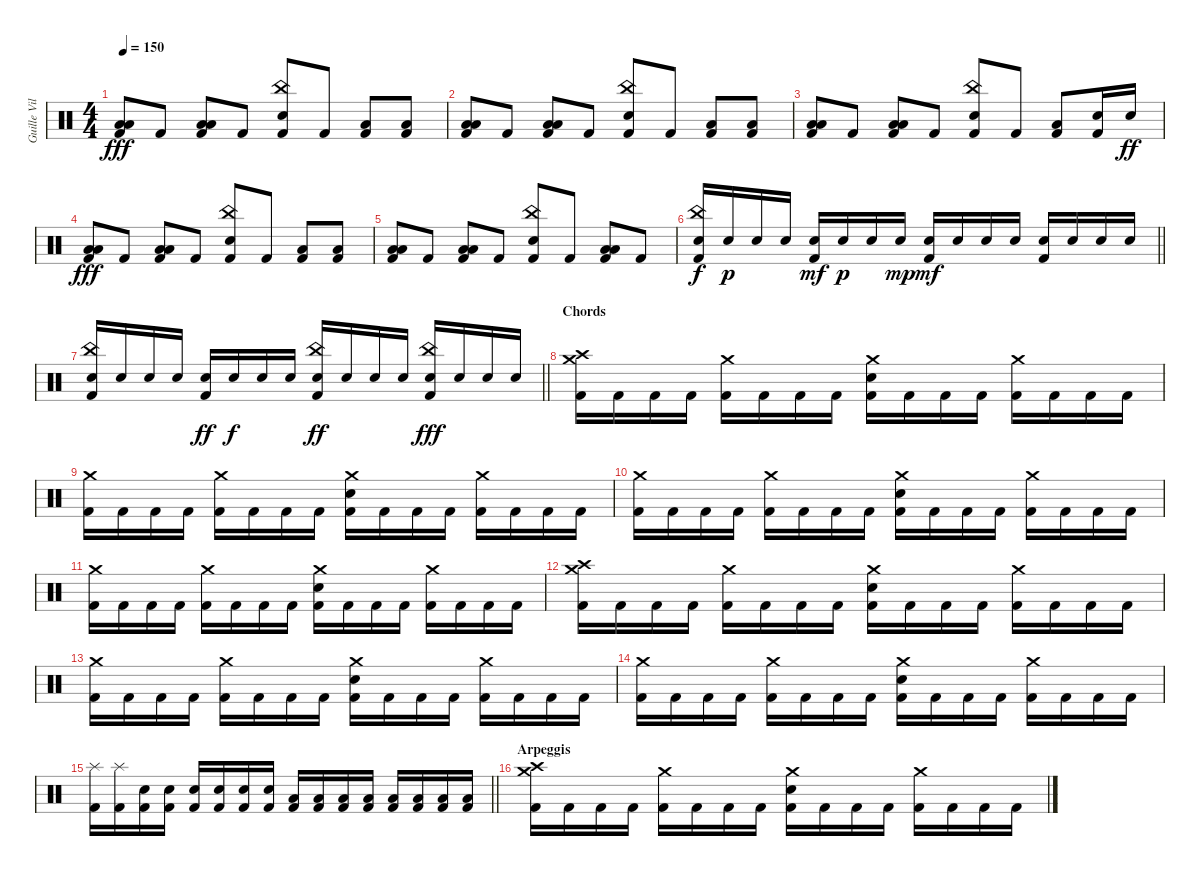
\track ("Guille Vila" "Guille Vil") {instrument percussion}
\staff {score}
\articulation defaults
\ts (4 4)
\tempo 150
\clef neutral
\ks c
("Low Floor Tom (hit)" "Low Tom (hit)" "Kick (hit) 2").8{dy fff} "Kick (hit) 2".8 ("Low Floor Tom (hit)" "Low Tom (hit)" "Kick (hit) 2").8 "Kick (hit) 2".8 ("China (hit)" "Snare (hit) 2" "Kick (hit) 2").8 "Kick (hit) 2".8 ("Low Floor Tom (hit)" "Kick (hit) 2").8 ("Low Tom (hit)" "Kick (hit) 2").8 |
("Low Floor Tom (hit)" "Low Tom (hit)" "Kick (hit) 2").8 "Kick (hit) 2".8 ("Low Floor Tom (hit)" "Low Tom (hit)" "Kick (hit) 2").8 "Kick (hit) 2".8 ("China (hit)" "Snare (hit) 2" "Kick (hit) 2").8 "Kick (hit) 2".8 ("Low Floor Tom (hit)" "Kick (hit) 2").8 ("Low Tom (hit)" "Kick (hit) 2").8 |
("Low Floor Tom (hit)" "Low Tom (hit)" "Kick (hit) 2").8 "Kick (hit) 2".8 ("Low Floor Tom (hit)" "Low Tom (hit)" "Kick (hit) 2").8 "Kick (hit) 2".8 ("China (hit)" "Snare (hit) 2" "Kick (hit) 2").8 "Kick (hit) 2".8 ("Low Tom (hit)" "Kick (hit) 2").8 ("Snare (hit) 2" "Kick (hit) 2").16 "Snare (hit) 2".16{dy ff} |
("Low Floor Tom (hit)" "Low Tom (hit)" "Kick (hit) 2").8{dy fff} "Kick (hit) 2".8 ("Low Floor Tom (hit)" "Low Tom (hit)" "Kick (hit) 2").8 "Kick (hit) 2".8 ("China (hit)" "Snare (hit) 2" "Kick (hit) 2").8 "Kick (hit) 2".8 ("Low Floor Tom (hit)" "Kick (hit) 2").8 ("Low Tom (hit)" "Kick (hit) 2").8 |
("Low Floor Tom (hit)" "Low Tom (hit)" "Kick (hit) 2").8 "Kick (hit) 2".8 ("Low Floor Tom (hit)" "Low Tom (hit)" "Kick (hit) 2").8 "Kick (hit) 2".8 ("China (hit)" "Snare (hit) 2" "Kick (hit) 2").8 "Kick (hit) 2".8 ("Low Floor Tom (hit)" "Low Tom (hit)" "Kick (hit) 2").8 "Kick (hit) 2".8 |
\barLineRight lightlight
("China (hit)" "Snare (hit) 2" "Kick (hit) 2").16{dy f} "Snare (hit) 2".16{dy p} "Snare (hit) 2".16 "Snare (hit) 2".16 ("Snare (hit) 2" "Kick (hit) 2").16{dy mf} "Snare (hit) 2".16{dy p} "Snare (hit) 2".16 "Snare (hit) 2".16{dy mp} ("Snare (hit) 2" "Kick (hit) 2").16{dy mf} "Snare (hit) 2".16 "Snare (hit) 2".16 "Snare (hit) 2".16 ("Snare (hit) 2" "Kick (hit) 2").16 "Snare (hit) 2".16 "Snare (hit) 2".16 "Snare (hit) 2".16 |
\barLineRight lightlight
("China (hit)" "Snare (hit) 2" "Kick (hit) 2").16 "Snare (hit) 2".16 "Snare (hit) 2".16 "Snare (hit) 2".16 ("Snare (hit) 2" "Kick (hit) 2").16{dy ff} "Snare (hit) 2".16{dy f} "Snare (hit) 2".16 "Snare (hit) 2".16 ("China (hit)" "Snare (hit) 2" "Kick (hit) 2").16{dy ff} "Snare (hit) 2".16 "Snare (hit) 2".16 "Snare (hit) 2".16 ("China (hit)" "Snare (hit) 2" "Kick (hit) 2").16{dy fff} "Snare (hit) 2".16 "Snare (hit) 2".16 "Snare (hit) 2".16 |
\section ("" "Chords")
("Crash medium (hit)" "Crash high (hit)" "Kick (hit) 2").16 "Kick (hit) 2".16 "Kick (hit) 2".16 "Kick (hit) 2".16 ("Crash medium (hit)" "Kick (hit) 2").16 "Kick (hit) 2".16 "Kick (hit) 2".16 "Kick (hit) 2".16 ("Crash medium (hit)" "Snare (hit) 2" "Kick (hit) 2").16 "Kick (hit) 2".16 "Kick (hit) 2".16 "Kick (hit) 2".16 ("Crash medium (hit)" "Kick (hit) 2").16 "Kick (hit) 2".16 "Kick (hit) 2".16 "Kick (hit) 2".16 |
("Crash medium (hit)" "Kick (hit) 2").16 "Kick (hit) 2".16 "Kick (hit) 2".16 "Kick (hit) 2".16 ("Crash medium (hit)" "Kick (hit) 2").16 "Kick (hit) 2".16 "Kick (hit) 2".16 "Kick (hit) 2".16 ("Crash medium (hit)" "Snare (hit) 2" "Kick (hit) 2").16 "Kick (hit) 2".16 "Kick (hit) 2".16 "Kick (hit) 2".16 ("Crash medium (hit)" "Kick (hit) 2").16 "Kick (hit) 2".16 "Kick (hit) 2".16 "Kick (hit) 2".16 |
("Crash medium (hit)" "Kick (hit) 2").16 "Kick (hit) 2".16 "Kick (hit) 2".16 "Kick (hit) 2".16 ("Crash medium (hit)" "Kick (hit) 2").16 "Kick (hit) 2".16 "Kick (hit) 2".16 "Kick (hit) 2".16 ("Crash medium (hit)" "Snare (hit) 2" "Kick (hit) 2").16 "Kick (hit) 2".16 "Kick (hit) 2".16 "Kick (hit) 2".16 ("Crash medium (hit)" "Kick (hit) 2").16 "Kick (hit) 2".16 "Kick (hit) 2".16 "Kick (hit) 2".16 |
("Crash medium (hit)" "Kick (hit) 2").16 "Kick (hit) 2".16 "Kick (hit) 2".16 "Kick (hit) 2".16 ("Crash medium (hit)" "Kick (hit) 2").16 "Kick (hit) 2".16 "Kick (hit) 2".16 "Kick (hit) 2".16 ("Crash medium (hit)" "Snare (hit) 2" "Kick (hit) 2").16 "Kick (hit) 2".16 "Kick (hit) 2".16 "Kick (hit) 2".16 ("Crash medium (hit)" "Kick (hit) 2").16 "Kick (hit) 2".16 "Kick (hit) 2".16 "Kick (hit) 2".16 |
("Crash medium (hit)" "Crash high (hit)" "Kick (hit) 2").16 "Kick (hit) 2".16 "Kick (hit) 2".16 "Kick (hit) 2".16 ("Crash medium (hit)" "Kick (hit) 2").16 "Kick (hit) 2".16 "Kick (hit) 2".16 "Kick (hit) 2".16 ("Crash medium (hit)" "Snare (hit) 2" "Kick (hit) 2").16 "Kick (hit) 2".16 "Kick (hit) 2".16 "Kick (hit) 2".16 ("Crash medium (hit)" "Kick (hit) 2").16 "Kick (hit) 2".16 "Kick (hit) 2".16 "Kick (hit) 2".16 |
("Crash medium (hit)" "Kick (hit) 2").16 "Kick (hit) 2".16 "Kick (hit) 2".16 "Kick (hit) 2".16 ("Crash medium (hit)" "Kick (hit) 2").16 "Kick (hit) 2".16 "Kick (hit) 2".16 "Kick (hit) 2".16 ("Crash medium (hit)" "Snare (hit) 2" "Kick (hit) 2").16 "Kick (hit) 2".16 "Kick (hit) 2".16 "Kick (hit) 2".16 ("Crash medium (hit)" "Kick (hit) 2").16 "Kick (hit) 2".16 "Kick (hit) 2".16 "Kick (hit) 2".16 |
("Crash medium (hit)" "Kick (hit) 2").16 "Kick (hit) 2".16 "Kick (hit) 2".16 "Kick (hit) 2".16 ("Crash medium (hit)" "Kick (hit) 2").16 "Kick (hit) 2".16 "Kick (hit) 2".16 "Kick (hit) 2".16 ("Crash medium (hit)" "Snare (hit) 2" "Kick (hit) 2").16 "Kick (hit) 2".16 "Kick (hit) 2".16 "Kick (hit) 2".16 ("Crash medium (hit)" "Kick (hit) 2").16 "Kick (hit) 2".16 "Kick (hit) 2".16 "Kick (hit) 2".16 |
\barLineRight lightlight
("Splash (hit)" "Kick (hit) 2").16 ("Splash (hit)" "Kick (hit) 2").16 ("Snare (hit) 2" "Kick (hit) 2").16 ("Snare (hit) 2" "Kick (hit) 2").16 ("Snare (hit) 2" "Kick (hit) 2").16 ("Snare (hit) 2" "Kick (hit) 2").16 ("Snare (hit) 2" "Kick (hit) 2").16 ("Snare (hit) 2" "Kick (hit) 2").16 ("Low Tom (hit)" "Kick (hit) 2").16 ("Low Tom (hit)" "Kick (hit) 2").16 ("Low Tom (hit)" "Kick (hit) 2").16 ("Low Tom (hit)" "Kick (hit) 2").16 ("Low Floor Tom (hit)" "Kick (hit) 2").16 ("Low Floor Tom (hit)" "Kick (hit) 2").16 ("Low Floor Tom (hit)" "Kick (hit) 2").16 ("Low Floor Tom (hit)" "Kick (hit) 2").16 |
\section ("" "Arpeggis")
("Crash medium (hit)" "Crash high (hit)" "Kick (hit) 2").16 "Kick (hit) 2".16 "Kick (hit) 2".16 "Kick (hit) 2".16 ("Crash medium (hit)" "Kick (hit) 2").16 "Kick (hit) 2".16 "Kick (hit) 2".16 "Kick (hit) 2".16 ("Crash medium (hit)" "Snare (hit) 2" "Kick (hit) 2").16 "Kick (hit) 2".16 "Kick (hit) 2".16 "Kick (hit) 2".16 ("Crash medium (hit)" "Kick (hit) 2").16 "Kick (hit) 2".16 "Kick (hit) 2".16 "Kick (hit) 2".16
